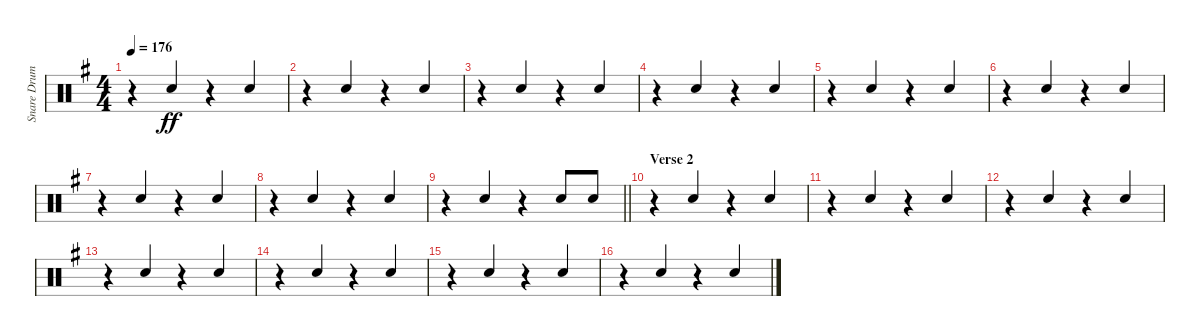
\track ("Snare Drum" "Snare Drum") {instrument percussion}
\staff {score}
\articulation defaults
\ts (4 4)
\tempo 176
\clef neutral
\ks eminor
r.4{dy ff} "Electric Snare (hit)".4{beam Up} r.4 "Electric Snare (hit)".4{beam Up} |
r.4 "Electric Snare (hit)".4{beam Up} r.4 "Electric Snare (hit)".4{beam Up} |
r.4 "Electric Snare (hit)".4{beam Up} r.4 "Electric Snare (hit)".4{beam Up} |
r.4 "Electric Snare (hit)".4{beam Up} r.4 "Electric Snare (hit)".4{beam Up} |
r.4 "Electric Snare (hit)".4{beam Up} r.4 "Electric Snare (hit)".4{beam Up} |
r.4 "Electric Snare (hit)".4{beam Up} r.4 "Electric Snare (hit)".4{beam Up} |
r.4 "Electric Snare (hit)".4{beam Up} r.4 "Electric Snare (hit)".4{beam Up} |
r.4 "Electric Snare (hit)".4{beam Up} r.4 "Electric Snare (hit)".4{beam Up} |
\barLineRight lightlight
r.4 "Electric Snare (hit)".4{beam Up} r.4{beam Up beam merge} "Electric Snare (hit)".8{beam Up} "Electric Snare (hit)".8{beam Up} |
\section ("" "Verse 2")
r.4 "Electric Snare (hit)".4{beam Up} r.4 "Electric Snare (hit)".4{beam Up} |
r.4 "Electric Snare (hit)".4{beam Up} r.4 "Electric Snare (hit)".4{beam Up} |
r.4 "Electric Snare (hit)".4{beam Up} r.4 "Electric Snare (hit)".4{beam Up} |
r.4 "Electric Snare (hit)".4{beam Up} r.4 "Electric Snare (hit)".4{beam Up} |
r.4 "Electric Snare (hit)".4{beam Up} r.4 "Electric Snare (hit)".4{beam Up} |
r.4 "Electric Snare (hit)".4{beam Up} r.4 "Electric Snare (hit)".4{beam Up} |
r.4 "Electric Snare (hit)".4{beam Up} r.4 "Electric Snare (hit)".4{beam Up}
